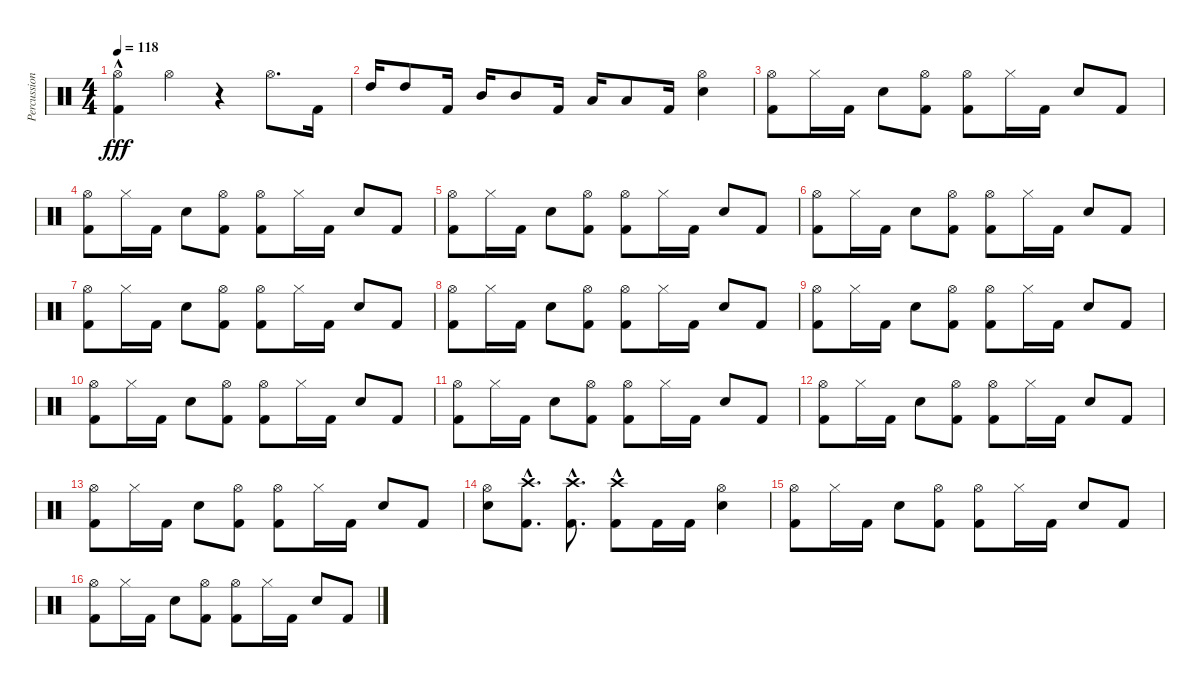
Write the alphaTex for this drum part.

\track ("Percussion" "Percussion") {instrument percussion}
\staff {score}
\articulation defaults
\ts (4 4)
\tempo 118
\clef neutral
\ks c
("Hi-Hat (open)" "Kick (hit) 2"{hac}).4{dy fff} "Hi-Hat (open)".4 r.4 "Hi-Hat (open)".8{d} "Kick (hit) 2".16 |
"High Tom (hit)".16 "High Tom (hit)".8 "Kick (hit) 2".16 "Mid Tom (hit)".16 "Mid Tom (hit)".8 "Kick (hit) 2".16 "Low Tom (hit)".16 "Low Tom (hit)".8 "Kick (hit) 2".16 ("Hi-Hat (open)" "Electric Snare (hit)").4 |
("Hi-Hat (open)" "Kick (hit) 2").8 "Hi-Hat (closed)".16 "Kick (hit) 2".16 "Electric Snare (hit)".8 ("Hi-Hat (open)" "Kick (hit) 2").8 ("Hi-Hat (open)" "Kick (hit) 2").8 "Hi-Hat (closed)".16 "Kick (hit) 2".16 "Electric Snare (hit)".8 "Kick (hit) 2".8 |
("Hi-Hat (open)" "Kick (hit) 2").8 "Hi-Hat (closed)".16 "Kick (hit) 2".16 "Electric Snare (hit)".8 ("Hi-Hat (open)" "Kick (hit) 2").8 ("Hi-Hat (open)" "Kick (hit) 2").8 "Hi-Hat (closed)".16 "Kick (hit) 2".16 "Electric Snare (hit)".8 "Kick (hit) 2".8 |
("Hi-Hat (open)" "Kick (hit) 2").8 "Hi-Hat (closed)".16 "Kick (hit) 2".16 "Electric Snare (hit)".8 ("Hi-Hat (open)" "Kick (hit) 2").8 ("Hi-Hat (open)" "Kick (hit) 2").8 "Hi-Hat (closed)".16 "Kick (hit) 2".16 "Electric Snare (hit)".8 "Kick (hit) 2".8 |
("Hi-Hat (open)" "Kick (hit) 2").8 "Hi-Hat (closed)".16 "Kick (hit) 2".16 "Electric Snare (hit)".8 ("Hi-Hat (open)" "Kick (hit) 2").8 ("Hi-Hat (open)" "Kick (hit) 2").8 "Hi-Hat (closed)".16 "Kick (hit) 2".16 "Electric Snare (hit)".8 "Kick (hit) 2".8 |
("Hi-Hat (open)" "Kick (hit) 2").8 "Hi-Hat (closed)".16 "Kick (hit) 2".16 "Electric Snare (hit)".8 ("Hi-Hat (open)" "Kick (hit) 2").8 ("Hi-Hat (open)" "Kick (hit) 2").8 "Hi-Hat (closed)".16 "Kick (hit) 2".16 "Electric Snare (hit)".8 "Kick (hit) 2".8 |
("Hi-Hat (open)" "Kick (hit) 2").8 "Hi-Hat (closed)".16 "Kick (hit) 2".16 "Electric Snare (hit)".8 ("Hi-Hat (open)" "Kick (hit) 2").8 ("Hi-Hat (open)" "Kick (hit) 2").8 "Hi-Hat (closed)".16 "Kick (hit) 2".16 "Electric Snare (hit)".8 "Kick (hit) 2".8 |
("Hi-Hat (open)" "Kick (hit) 2").8 "Hi-Hat (closed)".16 "Kick (hit) 2".16 "Electric Snare (hit)".8 ("Hi-Hat (open)" "Kick (hit) 2").8 ("Hi-Hat (open)" "Kick (hit) 2").8 "Hi-Hat (closed)".16 "Kick (hit) 2".16 "Electric Snare (hit)".8 "Kick (hit) 2".8 |
("Hi-Hat (open)" "Kick (hit) 2").8 "Hi-Hat (closed)".16 "Kick (hit) 2".16 "Electric Snare (hit)".8 ("Hi-Hat (open)" "Kick (hit) 2").8 ("Hi-Hat (open)" "Kick (hit) 2").8 "Hi-Hat (closed)".16 "Kick (hit) 2".16 "Electric Snare (hit)".8 "Kick (hit) 2".8 |
("Hi-Hat (open)" "Kick (hit) 2").8 "Hi-Hat (closed)".16 "Kick (hit) 2".16 "Electric Snare (hit)".8 ("Hi-Hat (open)" "Kick (hit) 2").8 ("Hi-Hat (open)" "Kick (hit) 2").8 "Hi-Hat (closed)".16 "Kick (hit) 2".16 "Electric Snare (hit)".8 "Kick (hit) 2".8 |
("Hi-Hat (open)" "Kick (hit) 2").8 "Hi-Hat (closed)".16 "Kick (hit) 2".16 "Electric Snare (hit)".8 ("Hi-Hat (open)" "Kick (hit) 2").8 ("Hi-Hat (open)" "Kick (hit) 2").8 "Hi-Hat (closed)".16 "Kick (hit) 2".16 "Electric Snare (hit)".8 "Kick (hit) 2".8 |
("Hi-Hat (open)" "Kick (hit) 2").8 "Hi-Hat (closed)".16 "Kick (hit) 2".16 "Electric Snare (hit)".8 ("Hi-Hat (open)" "Kick (hit) 2").8 ("Hi-Hat (open)" "Kick (hit) 2").8 "Hi-Hat (closed)".16 "Kick (hit) 2".16 "Electric Snare (hit)".8 "Kick (hit) 2".8 |
("Hi-Hat (open)" "Electric Snare (hit)").8 ("Crash high (hit)" "Kick (hit) 2"{hac}).8{d} ("Crash high (hit)"{hac} "Kick (hit) 2"{hac}).8{d} ("Crash high (hit)"{hac} "Kick (hit) 2").8 "Kick (hit) 2".16 "Kick (hit) 2".16 ("Hi-Hat (open)" "Electric Snare (hit)").4 |
("Hi-Hat (open)" "Kick (hit) 2").8 "Hi-Hat (closed)".16 "Kick (hit) 2".16 "Electric Snare (hit)".8 ("Hi-Hat (open)" "Kick (hit) 2").8 ("Hi-Hat (open)" "Kick (hit) 2").8 "Hi-Hat (closed)".16 "Kick (hit) 2".16 "Electric Snare (hit)".8 "Kick (hit) 2".8 |
("Hi-Hat (open)" "Kick (hit) 2").8 "Hi-Hat (closed)".16 "Kick (hit) 2".16 "Electric Snare (hit)".8 ("Hi-Hat (open)" "Kick (hit) 2").8 ("Hi-Hat (open)" "Kick (hit) 2").8 "Hi-Hat (closed)".16 "Kick (hit) 2".16 "Electric Snare (hit)".8 "Kick (hit) 2".8
